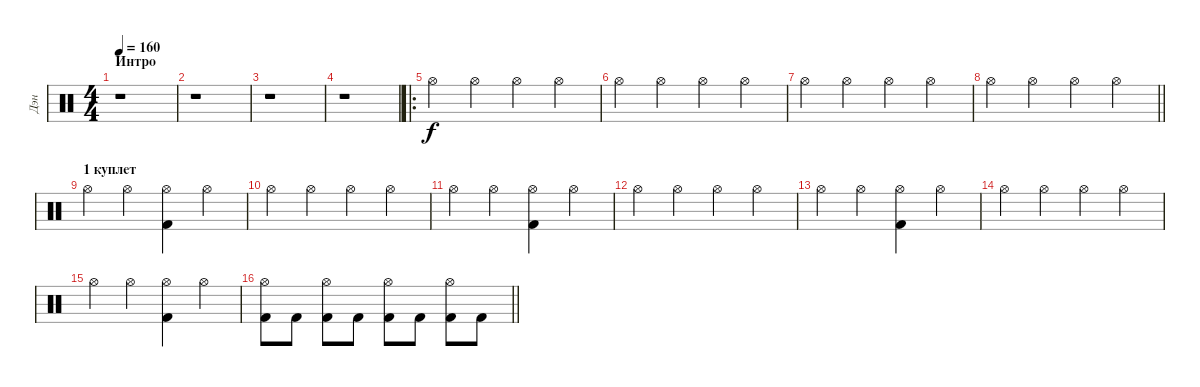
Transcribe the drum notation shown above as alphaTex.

\track ("Дэн" "Дэн") {instrument percussion}
\staff {score}
\articulation defaults
\ts (4 4)
\section ("" "Интро")
\tempo 160
\clef neutral
\ks c
r.1{dy f} |
r.1 |
r.1 |
r.1 |
\ro "Hi-Hat (open)".4 "Hi-Hat (open)".4 "Hi-Hat (open)".4 "Hi-Hat (open)".4
|
"Hi-Hat (open)".4 "Hi-Hat (open)".4 "Hi-Hat (open)".4 "Hi-Hat (open)".4 |
"Hi-Hat (open)".4 "Hi-Hat (open)".4 "Hi-Hat (open)".4 "Hi-Hat (open)".4 |
\barLineRight lightlight "Hi-Hat (open)".4 "Hi-Hat (open)".4 "Hi-Hat (open)".4 "Hi-Hat (open)".4
|
\section ("" "1 куплет")
"Hi-Hat (open)".4 "Hi-Hat (open)".4 ("Hi-Hat (open)" "Kick (hit) 2").4 "Hi-Hat (open)".4 |
"Hi-Hat (open)".4 "Hi-Hat (open)".4 "Hi-Hat (open)".4 "Hi-Hat (open)".4 |
"Hi-Hat (open)".4 "Hi-Hat (open)".4 ("Hi-Hat (open)" "Kick (hit) 2").4 "Hi-Hat (open)".4 |
"Hi-Hat (open)".4 "Hi-Hat (open)".4 "Hi-Hat (open)".4 "Hi-Hat (open)".4 |
"Hi-Hat (open)".4 "Hi-Hat (open)".4 ("Hi-Hat (open)" "Kick (hit) 2").4 "Hi-Hat (open)".4 |
"Hi-Hat (open)".4 "Hi-Hat (open)".4 "Hi-Hat (open)".4 "Hi-Hat (open)".4 |
"Hi-Hat (open)".4 "Hi-Hat (open)".4 ("Hi-Hat (open)" "Kick (hit) 2").4 "Hi-Hat (open)".4 |
\barLineRight lightlight
("Hi-Hat (open)" "Kick (hit) 2").8 "Kick (hit) 2".8 ("Hi-Hat (open)" "Kick (hit) 2").8 "Kick (hit) 2".8 ("Hi-Hat (open)" "Kick (hit) 2").8 "Kick (hit) 2".8 ("Hi-Hat (open)" "Kick (hit) 2").8 "Kick (hit) 2".8
